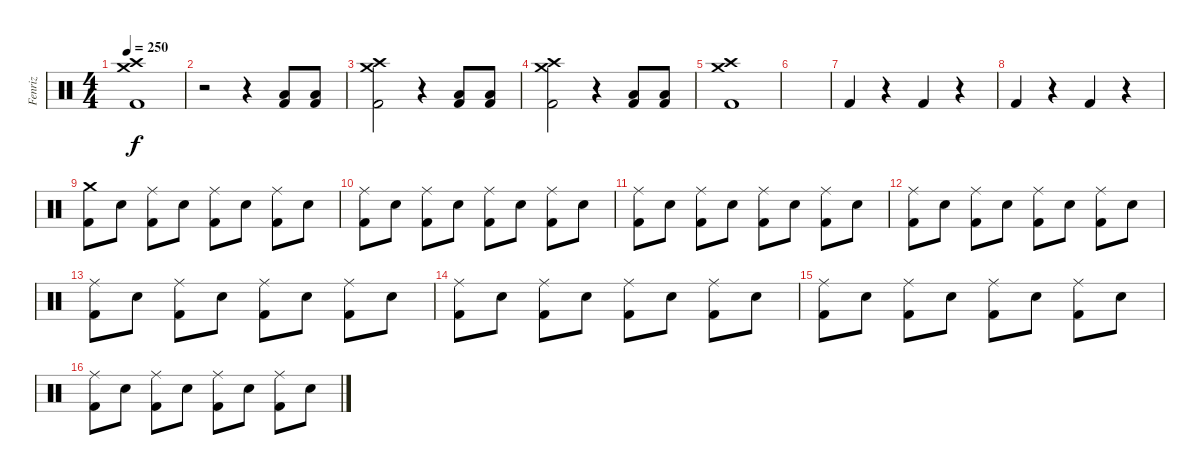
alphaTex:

\track ("Fenriz" "Fenriz") {instrument percussion}
\staff {score}
\articulation defaults
\ts (4 4)
\tempo 250
\clef neutral
\ks c
("Crash medium (hit)" "Crash high (hit)" "Kick (hit) 2").1{dy f} |
r.2 r.4 ("Low Floor Tom (hit)" "Kick (hit) 2").8 ("Low Floor Tom (hit)" "Kick (hit) 2").8 |
("Crash medium (hit)" "Crash high (hit)" "Kick (hit) 2").2 r.4 ("Low Floor Tom (hit)" "Kick (hit) 2").8 ("Low Floor Tom (hit)" "Kick (hit) 2").8 |
("Crash medium (hit)" "Crash high (hit)" "Kick (hit) 2").2 r.4 ("Low Floor Tom (hit)" "Kick (hit) 2").8 ("Low Floor Tom (hit)" "Kick (hit) 2").8 |
("Crash medium (hit)" "Crash high (hit)" "Kick (hit) 2").1 |
|
"Kick (hit) 2".4 r.4 "Kick (hit) 2".4 r.4 |
"Kick (hit) 2".4 r.4 "Kick (hit) 2".4 r.4 |
("Crash medium (hit)" "Kick (hit) 2").8 "Electric Snare (hit)".8 ("Ride (middle)" "Kick (hit) 2").8 "Electric Snare (hit)".8 ("Ride (middle)" "Kick (hit) 2").8 "Electric Snare (hit)".8 ("Ride (middle)" "Kick (hit) 2").8 "Electric Snare (hit)".8 |
("Ride (middle)" "Kick (hit) 2").8 "Electric Snare (hit)".8 ("Ride (middle)" "Kick (hit) 2").8 "Electric Snare (hit)".8 ("Ride (middle)" "Kick (hit) 2").8 "Electric Snare (hit)".8 ("Ride (middle)" "Kick (hit) 2").8 "Electric Snare (hit)".8 |
("Ride (middle)" "Kick (hit) 2").8 "Electric Snare (hit)".8 ("Ride (middle)" "Kick (hit) 2").8 "Electric Snare (hit)".8 ("Ride (middle)" "Kick (hit) 2").8 "Electric Snare (hit)".8 ("Ride (middle)" "Kick (hit) 2").8 "Electric Snare (hit)".8 |
("Ride (middle)" "Kick (hit) 2").8 "Electric Snare (hit)".8 ("Ride (middle)" "Kick (hit) 2").8 "Electric Snare (hit)".8 ("Ride (middle)" "Kick (hit) 2").8 "Electric Snare (hit)".8 ("Ride (middle)" "Kick (hit) 2").8 "Electric Snare (hit)".8 |
("Ride (middle)" "Kick (hit) 2").8 "Electric Snare (hit)".8 ("Ride (middle)" "Kick (hit) 2").8 "Electric Snare (hit)".8 ("Ride (middle)" "Kick (hit) 2").8 "Electric Snare (hit)".8 ("Ride (middle)" "Kick (hit) 2").8 "Electric Snare (hit)".8 |
("Ride (middle)" "Kick (hit) 2").8 "Electric Snare (hit)".8 ("Ride (middle)" "Kick (hit) 2").8 "Electric Snare (hit)".8 ("Ride (middle)" "Kick (hit) 2").8 "Electric Snare (hit)".8 ("Ride (middle)" "Kick (hit) 2").8 "Electric Snare (hit)".8 |
("Ride (middle)" "Kick (hit) 2").8 "Electric Snare (hit)".8 ("Ride (middle)" "Kick (hit) 2").8 "Electric Snare (hit)".8 ("Ride (middle)" "Kick (hit) 2").8 "Electric Snare (hit)".8 ("Ride (middle)" "Kick (hit) 2").8 "Electric Snare (hit)".8 |
("Ride (middle)" "Kick (hit) 2").8 "Electric Snare (hit)".8 ("Ride (middle)" "Kick (hit) 2").8 "Electric Snare (hit)".8 ("Ride (middle)" "Kick (hit) 2").8 "Electric Snare (hit)".8 ("Ride (middle)" "Kick (hit) 2").8 "Electric Snare (hit)".8
